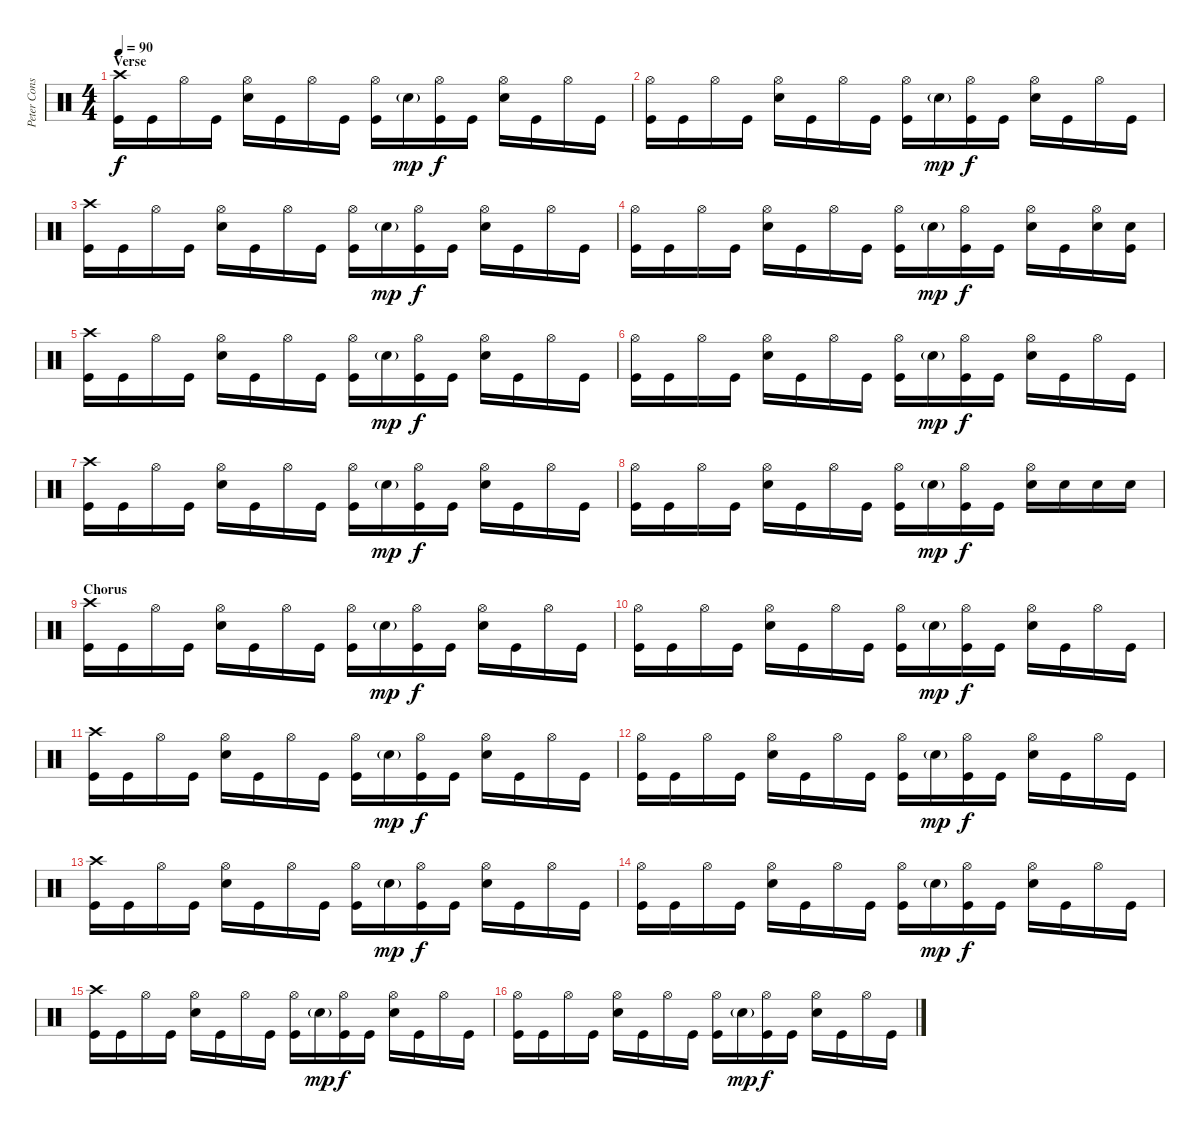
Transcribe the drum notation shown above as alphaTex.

\track ("Peter Constantinou" "Peter Cons") {instrument percussion}
\staff {score}
\articulation defaults
\ts (4 4)
\section ("" "Verse")
\tempo 90
\clef neutral
\ks c
("Crash high (hit)" "Kick (hit)").16{dy f} "Kick (hit)".16 "Hi-Hat (open)".16 "Kick (hit)".16 ("Hi-Hat (open)" "Snare (hit) 2").16 "Kick (hit)".16 "Hi-Hat (open)".16 "Kick (hit)".16 ("Hi-Hat (open)" "Kick (hit)").16 "Snare (hit) 2"{g}.16{dy mp} ("Hi-Hat (open)" "Kick (hit)").16{dy f} "Kick (hit)".16 ("Hi-Hat (open)" "Snare (hit) 2").16 "Kick (hit)".16 "Hi-Hat (open)".16 "Kick (hit)".16 |
("Hi-Hat (open)" "Kick (hit)").16 "Kick (hit)".16 "Hi-Hat (open)".16 "Kick (hit)".16 ("Hi-Hat (open)" "Snare (hit) 2").16 "Kick (hit)".16 "Hi-Hat (open)".16 "Kick (hit)".16 ("Hi-Hat (open)" "Kick (hit)").16 "Snare (hit) 2"{g}.16{dy mp} ("Hi-Hat (open)" "Kick (hit)").16{dy f} "Kick (hit)".16 ("Hi-Hat (open)" "Snare (hit) 2").16 "Kick (hit)".16 "Hi-Hat (open)".16 "Kick (hit)".16 |
("Crash high (hit)" "Kick (hit)").16 "Kick (hit)".16 "Hi-Hat (open)".16 "Kick (hit)".16 ("Hi-Hat (open)" "Snare (hit) 2").16 "Kick (hit)".16 "Hi-Hat (open)".16 "Kick (hit)".16 ("Hi-Hat (open)" "Kick (hit)").16 "Snare (hit) 2"{g}.16{dy mp} ("Hi-Hat (open)" "Kick (hit)").16{dy f} "Kick (hit)".16 ("Hi-Hat (open)" "Snare (hit) 2").16 "Kick (hit)".16 "Hi-Hat (open)".16 "Kick (hit)".16 |
("Hi-Hat (open)" "Kick (hit)").16 "Kick (hit)".16 "Hi-Hat (open)".16 "Kick (hit)".16 ("Hi-Hat (open)" "Snare (hit) 2").16 "Kick (hit)".16 "Hi-Hat (open)".16 "Kick (hit)".16 ("Hi-Hat (open)" "Kick (hit)").16 "Snare (hit) 2"{g}.16{dy mp} ("Hi-Hat (open)" "Kick (hit)").16{dy f} "Kick (hit)".16 ("Hi-Hat (open)" "Snare (hit) 2").16 "Kick (hit)".16 ("Hi-Hat (open)" "Snare (hit) 2").16 ("Snare (hit) 2" "Kick (hit)").16 |
("Crash high (hit)" "Kick (hit)").16 "Kick (hit)".16 "Hi-Hat (open)".16 "Kick (hit)".16 ("Hi-Hat (open)" "Snare (hit) 2").16 "Kick (hit)".16 "Hi-Hat (open)".16 "Kick (hit)".16 ("Hi-Hat (open)" "Kick (hit)").16 "Snare (hit) 2"{g}.16{dy mp} ("Hi-Hat (open)" "Kick (hit)").16{dy f} "Kick (hit)".16 ("Hi-Hat (open)" "Snare (hit) 2").16 "Kick (hit)".16 "Hi-Hat (open)".16 "Kick (hit)".16 |
("Hi-Hat (open)" "Kick (hit)").16 "Kick (hit)".16 "Hi-Hat (open)".16 "Kick (hit)".16 ("Hi-Hat (open)" "Snare (hit) 2").16 "Kick (hit)".16 "Hi-Hat (open)".16 "Kick (hit)".16 ("Hi-Hat (open)" "Kick (hit)").16 "Snare (hit) 2"{g}.16{dy mp} ("Hi-Hat (open)" "Kick (hit)").16{dy f} "Kick (hit)".16 ("Hi-Hat (open)" "Snare (hit) 2").16 "Kick (hit)".16 "Hi-Hat (open)".16 "Kick (hit)".16 |
("Crash high (hit)" "Kick (hit)").16 "Kick (hit)".16 "Hi-Hat (open)".16 "Kick (hit)".16 ("Hi-Hat (open)" "Snare (hit) 2").16 "Kick (hit)".16 "Hi-Hat (open)".16 "Kick (hit)".16 ("Hi-Hat (open)" "Kick (hit)").16 "Snare (hit) 2"{g}.16{dy mp} ("Hi-Hat (open)" "Kick (hit)").16{dy f} "Kick (hit)".16 ("Hi-Hat (open)" "Snare (hit) 2").16 "Kick (hit)".16 "Hi-Hat (open)".16 "Kick (hit)".16 |
("Hi-Hat (open)" "Kick (hit)").16 "Kick (hit)".16 "Hi-Hat (open)".16 "Kick (hit)".16 ("Hi-Hat (open)" "Snare (hit) 2").16 "Kick (hit)".16 "Hi-Hat (open)".16 "Kick (hit)".16 ("Hi-Hat (open)" "Kick (hit)").16 "Snare (hit) 2"{g}.16{dy mp} ("Hi-Hat (open)" "Kick (hit)").16{dy f} "Kick (hit)".16 ("Hi-Hat (open)" "Snare (hit) 2").16 "Snare (hit) 2".16 "Snare (hit) 2".16 "Snare (hit) 2".16 |
\section ("" "Chorus")
("Crash high (hit)" "Kick (hit)").16 "Kick (hit)".16 "Hi-Hat (open)".16 "Kick (hit)".16 ("Hi-Hat (open)" "Snare (hit) 2").16 "Kick (hit)".16 "Hi-Hat (open)".16 "Kick (hit)".16 ("Hi-Hat (open)" "Kick (hit)").16 "Snare (hit) 2"{g}.16{dy mp} ("Hi-Hat (open)" "Kick (hit)").16{dy f} "Kick (hit)".16 ("Hi-Hat (open)" "Snare (hit) 2").16 "Kick (hit)".16 "Hi-Hat (open)".16 "Kick (hit)".16 |
("Hi-Hat (open)" "Kick (hit)").16 "Kick (hit)".16 "Hi-Hat (open)".16 "Kick (hit)".16 ("Hi-Hat (open)" "Snare (hit) 2").16 "Kick (hit)".16 "Hi-Hat (open)".16 "Kick (hit)".16 ("Hi-Hat (open)" "Kick (hit)").16 "Snare (hit) 2"{g}.16{dy mp} ("Hi-Hat (open)" "Kick (hit)").16{dy f} "Kick (hit)".16 ("Hi-Hat (open)" "Snare (hit) 2").16 "Kick (hit)".16 "Hi-Hat (open)".16 "Kick (hit)".16 |
("Crash high (hit)" "Kick (hit)").16 "Kick (hit)".16 "Hi-Hat (open)".16 "Kick (hit)".16 ("Hi-Hat (open)" "Snare (hit) 2").16 "Kick (hit)".16 "Hi-Hat (open)".16 "Kick (hit)".16 ("Hi-Hat (open)" "Kick (hit)").16 "Snare (hit) 2"{g}.16{dy mp} ("Hi-Hat (open)" "Kick (hit)").16{dy f} "Kick (hit)".16 ("Hi-Hat (open)" "Snare (hit) 2").16 "Kick (hit)".16 "Hi-Hat (open)".16 "Kick (hit)".16 |
("Hi-Hat (open)" "Kick (hit)").16 "Kick (hit)".16 "Hi-Hat (open)".16 "Kick (hit)".16 ("Hi-Hat (open)" "Snare (hit) 2").16 "Kick (hit)".16 "Hi-Hat (open)".16 "Kick (hit)".16 ("Hi-Hat (open)" "Kick (hit)").16 "Snare (hit) 2"{g}.16{dy mp} ("Hi-Hat (open)" "Kick (hit)").16{dy f} "Kick (hit)".16 ("Hi-Hat (open)" "Snare (hit) 2").16 "Kick (hit)".16 "Hi-Hat (open)".16 "Kick (hit)".16 |
("Crash high (hit)" "Kick (hit)").16 "Kick (hit)".16 "Hi-Hat (open)".16 "Kick (hit)".16 ("Hi-Hat (open)" "Snare (hit) 2").16 "Kick (hit)".16 "Hi-Hat (open)".16 "Kick (hit)".16 ("Hi-Hat (open)" "Kick (hit)").16 "Snare (hit) 2"{g}.16{dy mp} ("Hi-Hat (open)" "Kick (hit)").16{dy f} "Kick (hit)".16 ("Hi-Hat (open)" "Snare (hit) 2").16 "Kick (hit)".16 "Hi-Hat (open)".16 "Kick (hit)".16 |
("Hi-Hat (open)" "Kick (hit)").16 "Kick (hit)".16 "Hi-Hat (open)".16 "Kick (hit)".16 ("Hi-Hat (open)" "Snare (hit) 2").16 "Kick (hit)".16 "Hi-Hat (open)".16 "Kick (hit)".16 ("Hi-Hat (open)" "Kick (hit)").16 "Snare (hit) 2"{g}.16{dy mp} ("Hi-Hat (open)" "Kick (hit)").16{dy f} "Kick (hit)".16 ("Hi-Hat (open)" "Snare (hit) 2").16 "Kick (hit)".16 "Hi-Hat (open)".16 "Kick (hit)".16 |
("Crash high (hit)" "Kick (hit)").16 "Kick (hit)".16 "Hi-Hat (open)".16 "Kick (hit)".16 ("Hi-Hat (open)" "Snare (hit) 2").16 "Kick (hit)".16 "Hi-Hat (open)".16 "Kick (hit)".16 ("Hi-Hat (open)" "Kick (hit)").16 "Snare (hit) 2"{g}.16{dy mp} ("Hi-Hat (open)" "Kick (hit)").16{dy f} "Kick (hit)".16 ("Hi-Hat (open)" "Snare (hit) 2").16 "Kick (hit)".16 "Hi-Hat (open)".16 "Kick (hit)".16 |
("Hi-Hat (open)" "Kick (hit)").16 "Kick (hit)".16 "Hi-Hat (open)".16 "Kick (hit)".16 ("Hi-Hat (open)" "Snare (hit) 2").16 "Kick (hit)".16 "Hi-Hat (open)".16 "Kick (hit)".16 ("Hi-Hat (open)" "Kick (hit)").16 "Snare (hit) 2"{g}.16{dy mp} ("Hi-Hat (open)" "Kick (hit)").16{dy f} "Kick (hit)".16 ("Hi-Hat (open)" "Snare (hit) 2").16 "Kick (hit)".16 "Hi-Hat (open)".16 "Kick (hit)".16
